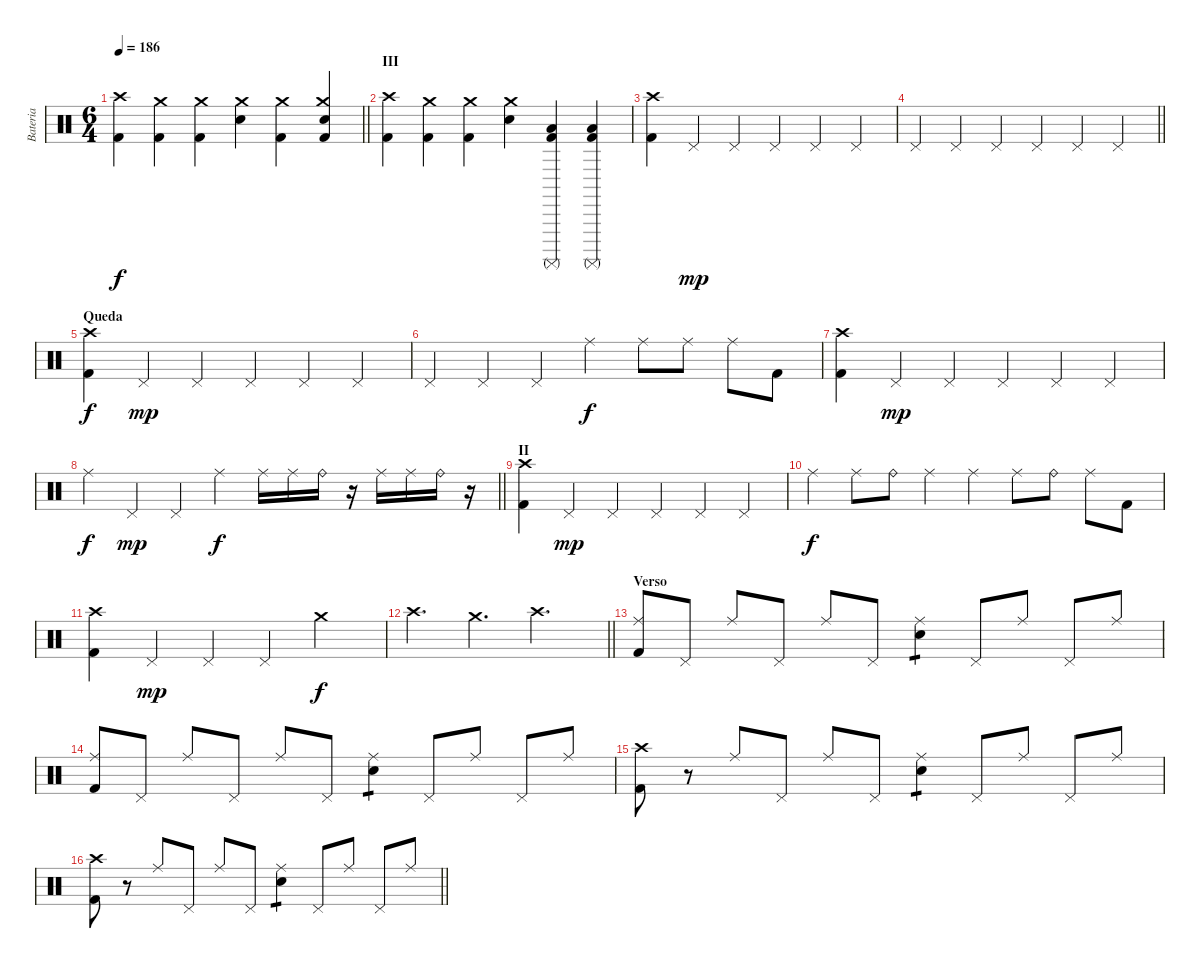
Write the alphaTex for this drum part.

\track ("Bateria" "Bateria") {instrument percussion}
\staff {score}
\articulation defaults
\ts (6 4)
\tempo 186
\clef neutral
\barLineRight lightlight
\ks c
("Kick (hit) 2" "Crash high (hit)").4{dy f} ("Kick (hit) 2" "Crash medium (hit)").4 ("Kick (hit) 2" "Crash medium (hit)").4 ("Electric Snare (hit)" "Crash medium (hit)").4 ("Kick (hit) 2" "Crash medium (hit)").4 ("Kick (hit) 2" "Electric Snare (hit)" "Crash medium (hit)").4 |
\section ("" "III")
("Kick (hit) 2" "Crash high (hit)").4 ("Kick (hit) 2" "Crash medium (hit)").4 ("Kick (hit) 2" "Crash medium (hit)").4 ("Electric Snare (hit)" "Crash medium (hit)").4 ("Kick (hit) 2" "Low Tom (hit)" "Surdo (mute)").4 ("Kick (hit) 2" "Low Tom (hit)" "Surdo (mute)").4 |
("Kick (hit) 2" "Crash high (hit)").4 "Pedal Hi-Hat (hit)".4{dy mp} "Pedal Hi-Hat (hit)".4 "Pedal Hi-Hat (hit)".4 "Pedal Hi-Hat (hit)".4 "Pedal Hi-Hat (hit)".4 |
\barLineRight lightlight "Pedal Hi-Hat (hit)".4 "Pedal Hi-Hat (hit)".4 "Pedal Hi-Hat (hit)".4 "Pedal Hi-Hat (hit)".4 "Pedal Hi-Hat (hit)".4 "Pedal Hi-Hat (hit)".4
|
\section ("" "Queda")
("Kick (hit) 2" "Crash high (hit)").4{dy f} "Pedal Hi-Hat (hit)".4{dy mp} "Pedal Hi-Hat (hit)".4 "Pedal Hi-Hat (hit)".4 "Pedal Hi-Hat (hit)".4 "Pedal Hi-Hat (hit)".4 |
"Pedal Hi-Hat (hit)".4 "Pedal Hi-Hat (hit)".4 "Pedal Hi-Hat (hit)".4 "Ride (middle)".4{dy f} "Ride (middle)".8 "Ride (middle)".8 "Ride (middle)".8 "Kick (hit) 2".8 |
("Kick (hit) 2" "Crash high (hit)").4 "Pedal Hi-Hat (hit)".4{dy mp} "Pedal Hi-Hat (hit)".4 "Pedal Hi-Hat (hit)".4 "Pedal Hi-Hat (hit)".4 "Pedal Hi-Hat (hit)".4 |
\barLineRight lightlight "Ride (middle)".4{dy f} "Pedal Hi-Hat (hit)".4{dy mp} "Pedal Hi-Hat (hit)".4 "Ride (middle)".4{dy f} "Ride (middle)".16 "Ride (middle)".16 "Ride (bell)".16
r.16 "Ride (middle)".16 "Ride (middle)".16 "Ride (bell)".16 r.16 |
\section ("" "II")
("Kick (hit) 2" "Crash high (hit)").4 "Pedal Hi-Hat (hit)".4{dy mp} "Pedal Hi-Hat (hit)".4 "Pedal Hi-Hat (hit)".4 "Pedal Hi-Hat (hit)".4 "Pedal Hi-Hat (hit)".4 |
"Ride (middle)".4{dy f} "Ride (middle)".8 "Ride (bell)".8 "Ride (middle)".4 "Ride (middle)".4 "Ride (middle)".8 "Ride (bell)".8 "Ride (middle)".8 "Kick (hit) 2".8 |
("Kick (hit) 2" "Crash high (hit)").4 "Pedal Hi-Hat (hit)".4{dy mp} "Pedal Hi-Hat (hit)".4 "Pedal Hi-Hat (hit)".4 "Crash medium (hit)".2{dy f} |
\barLineRight lightlight "Crash high (hit)".4{d} "Crash medium (hit)".4{d} "Crash high (hit)".2{d}
|
\section ("" "Verso")
("Kick (hit) 2" "Ride (middle)").8 "Pedal Hi-Hat (hit)".8 "Ride (middle)".8 "Pedal Hi-Hat (hit)".8 "Ride (middle)".8 "Pedal Hi-Hat (hit)".8 ("Electric Snare (hit)" "Ride (middle)").4{tp 1} "Pedal Hi-Hat (hit)".8 "Ride (middle)".8 "Pedal Hi-Hat (hit)".8 "Ride (middle)".8 |
("Kick (hit) 2" "Ride (middle)").8 "Pedal Hi-Hat (hit)".8 "Ride (middle)".8 "Pedal Hi-Hat (hit)".8 "Ride (middle)".8 "Pedal Hi-Hat (hit)".8 ("Electric Snare (hit)" "Ride (middle)").4{tp 1} "Pedal Hi-Hat (hit)".8 "Ride (middle)".8 "Pedal Hi-Hat (hit)".8 "Ride (middle)".8 |
("Kick (hit) 2" "Crash high (hit)").8 r.8 "Ride (middle)".8 "Pedal Hi-Hat (hit)".8 "Ride (middle)".8 "Pedal Hi-Hat (hit)".8 ("Electric Snare (hit)" "Ride (middle)").4{tp 1} "Pedal Hi-Hat (hit)".8 "Ride (middle)".8 "Pedal Hi-Hat (hit)".8 "Ride (middle)".8 |
\barLineRight lightlight
("Kick (hit) 2" "Crash high (hit)").8 r.8 "Ride (middle)".8 "Pedal Hi-Hat (hit)".8 "Ride (middle)".8 "Pedal Hi-Hat (hit)".8 ("Electric Snare (hit)" "Ride (middle)").4{tp 1} "Pedal Hi-Hat (hit)".8 "Ride (middle)".8 "Pedal Hi-Hat (hit)".8 "Ride (middle)".8
